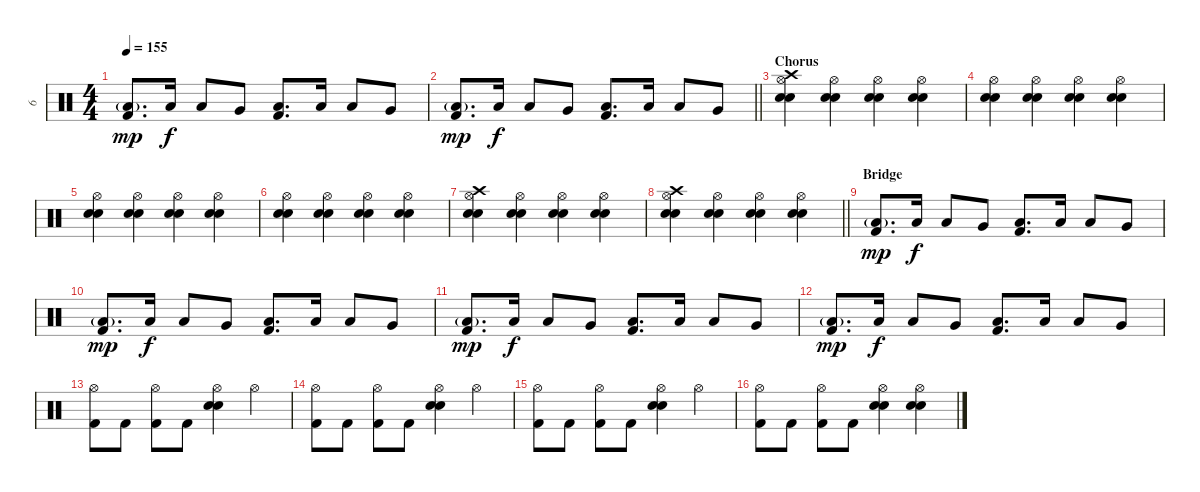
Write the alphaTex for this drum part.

\track ("6" "6") {instrument percussion}
\staff {score}
\articulation defaults
\ts (4 4)
\tempo 155
\clef neutral
\ks c
("Low Tom (hit)"{g} "Kick (hit) 2").8{d dy mp} "Low Tom (hit)".16{dy f} "Low Tom (hit)".8 "Very Low Tom (hit)".8 ("Low Tom (hit)" "Kick (hit) 2").8{d} "Low Tom (hit)".16 "Low Tom (hit)".8 "Very Low Tom (hit)".8 |
\barLineRight lightlight
("Low Tom (hit)"{g} "Kick (hit) 2").8{d dy mp} "Low Tom (hit)".16{dy f} "Low Tom (hit)".8 "Very Low Tom (hit)".8 ("Low Tom (hit)" "Kick (hit) 2").8{d} "Low Tom (hit)".16 "Low Tom (hit)".8 "Very Low Tom (hit)".8 |
\section ("" "Chorus")
("Hi-Hat (open)" "Crash high (hit)" "Snare (hit) 2" "Electric Snare (hit)").4 ("Hi-Hat (open)" "Snare (hit) 2" "Electric Snare (hit)").4 ("Hi-Hat (open)" "Snare (hit) 2" "Electric Snare (hit)").4 ("Hi-Hat (open)" "Snare (hit) 2" "Electric Snare (hit)").4 |
("Hi-Hat (open)" "Snare (hit) 2" "Electric Snare (hit)").4 ("Hi-Hat (open)" "Snare (hit) 2" "Electric Snare (hit)").4 ("Hi-Hat (open)" "Snare (hit) 2" "Electric Snare (hit)").4 ("Hi-Hat (open)" "Snare (hit) 2" "Electric Snare (hit)").4 |
("Hi-Hat (open)" "Snare (hit) 2" "Electric Snare (hit)").4 ("Hi-Hat (open)" "Snare (hit) 2" "Electric Snare (hit)").4 ("Hi-Hat (open)" "Snare (hit) 2" "Electric Snare (hit)").4 ("Hi-Hat (open)" "Snare (hit) 2" "Electric Snare (hit)").4 |
("Hi-Hat (open)" "Snare (hit) 2" "Electric Snare (hit)").4 ("Hi-Hat (open)" "Snare (hit) 2" "Electric Snare (hit)").4 ("Hi-Hat (open)" "Snare (hit) 2" "Electric Snare (hit)").4 ("Hi-Hat (open)" "Snare (hit) 2" "Electric Snare (hit)").4 |
("Hi-Hat (open)" "Crash high (hit)" "Snare (hit) 2" "Electric Snare (hit)").4 ("Hi-Hat (open)" "Snare (hit) 2" "Electric Snare (hit)").4 ("Hi-Hat (open)" "Snare (hit) 2" "Electric Snare (hit)").4 ("Hi-Hat (open)" "Snare (hit) 2" "Electric Snare (hit)").4 |
\barLineRight lightlight
("Hi-Hat (open)" "Crash high (hit)" "Snare (hit) 2" "Electric Snare (hit)").4 ("Hi-Hat (open)" "Snare (hit) 2" "Electric Snare (hit)").4 ("Hi-Hat (open)" "Snare (hit) 2" "Electric Snare (hit)").4 ("Hi-Hat (open)" "Snare (hit) 2" "Electric Snare (hit)").4 |
\section ("" "Bridge")
("Low Tom (hit)"{g} "Kick (hit) 2").8{d dy mp} "Low Tom (hit)".16{dy f} "Low Tom (hit)".8 "Very Low Tom (hit)".8 ("Low Tom (hit)" "Kick (hit) 2").8{d} "Low Tom (hit)".16 "Low Tom (hit)".8 "Very Low Tom (hit)".8 |
("Low Tom (hit)"{g} "Kick (hit) 2").8{d dy mp} "Low Tom (hit)".16{dy f} "Low Tom (hit)".8 "Very Low Tom (hit)".8 ("Low Tom (hit)" "Kick (hit) 2").8{d} "Low Tom (hit)".16 "Low Tom (hit)".8 "Very Low Tom (hit)".8 |
("Low Tom (hit)"{g} "Kick (hit) 2").8{d dy mp} "Low Tom (hit)".16{dy f} "Low Tom (hit)".8 "Very Low Tom (hit)".8 ("Low Tom (hit)" "Kick (hit) 2").8{d} "Low Tom (hit)".16 "Low Tom (hit)".8 "Very Low Tom (hit)".8 |
("Low Tom (hit)"{g} "Kick (hit) 2").8{d dy mp} "Low Tom (hit)".16{dy f} "Low Tom (hit)".8 "Very Low Tom (hit)".8 ("Low Tom (hit)" "Kick (hit) 2").8{d} "Low Tom (hit)".16 "Low Tom (hit)".8 "Very Low Tom (hit)".8 |
("Kick (hit) 2" "Hi-Hat (open)").8 "Kick (hit) 2".8 ("Kick (hit) 2" "Hi-Hat (open)").8 "Kick (hit) 2".8 ("Hi-Hat (open)" "Snare (hit) 2" "Electric Snare (hit)").4 "Hi-Hat (open)".4 |
("Kick (hit) 2" "Hi-Hat (open)").8 "Kick (hit) 2".8 ("Kick (hit) 2" "Hi-Hat (open)").8 "Kick (hit) 2".8 ("Hi-Hat (open)" "Snare (hit) 2" "Electric Snare (hit)").4 "Hi-Hat (open)".4 |
("Kick (hit) 2" "Hi-Hat (open)").8 "Kick (hit) 2".8 ("Kick (hit) 2" "Hi-Hat (open)").8 "Kick (hit) 2".8 ("Hi-Hat (open)" "Snare (hit) 2" "Electric Snare (hit)").4 "Hi-Hat (open)".4 |
("Kick (hit) 2" "Hi-Hat (open)").8 "Kick (hit) 2".8 ("Kick (hit) 2" "Hi-Hat (open)").8 "Kick (hit) 2".8 ("Hi-Hat (open)" "Snare (hit) 2" "Electric Snare (hit)").4 ("Hi-Hat (open)" "Snare (hit) 2" "Electric Snare (hit)").4
